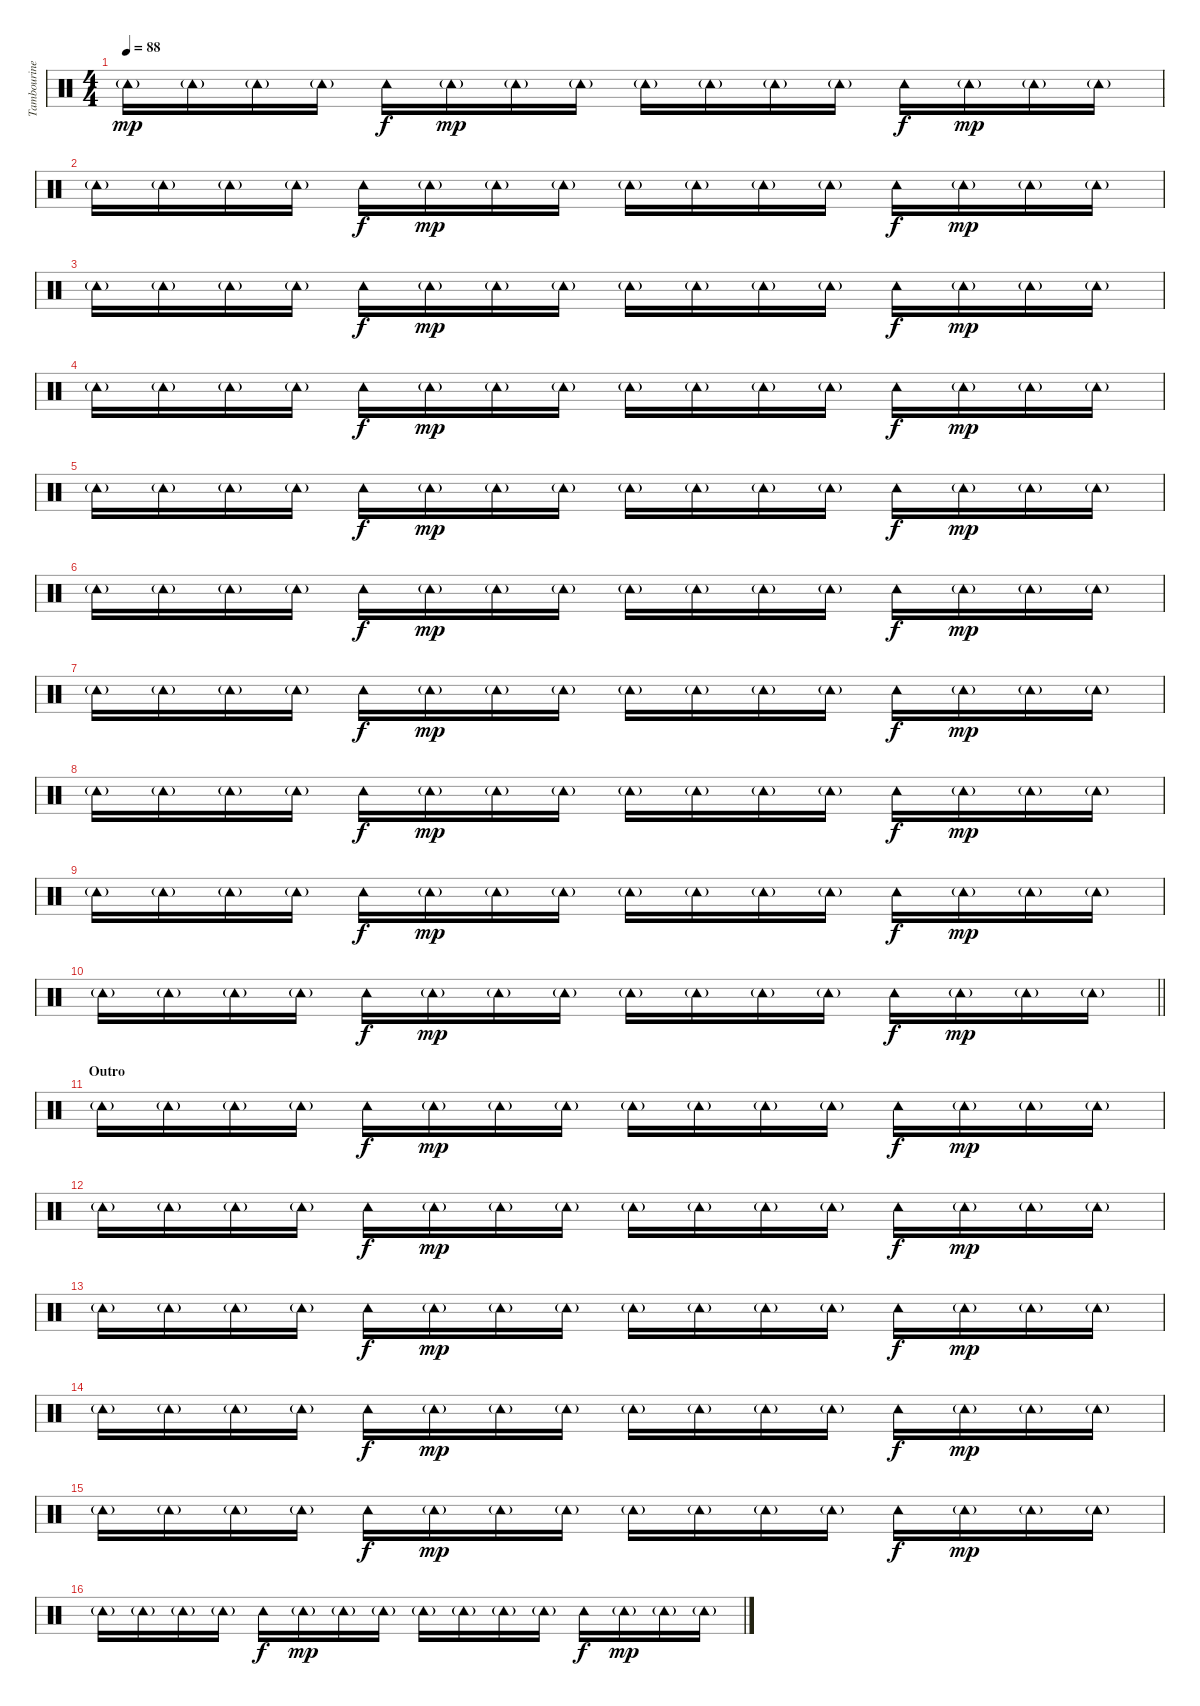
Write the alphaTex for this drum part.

\track ("Tambourine" "Tambourine") {instrument percussion}
\staff {score}
\articulation defaults
\ts (4 4)
\tempo 88
\clef neutral
\ks c "Tambourine (hit)"{g}.16{dy mp} "Tambourine (hit)"{g}.16 "Tambourine (hit)"{g}.16 "Tambourine (hit)"{g}.16 "Tambourine (hit)".16{dy f} "Tambourine (hit)"{g}.16{dy mp} "Tambourine (hit)"{g}.16 "Tambourine (hit)"{g}.16 "Tambourine (hit)"{g}.16 "Tambourine (hit)"{g}.16 "Tambourine (hit)"{g}.16 "Tambourine (hit)"{g}.16 "Tambourine (hit)".16{dy f} "Tambourine (hit)"{g}.16{dy mp} "Tambourine (hit)"{g}.16 "Tambourine (hit)"{g}.16
|
"Tambourine (hit)"{g}.16 "Tambourine (hit)"{g}.16 "Tambourine (hit)"{g}.16 "Tambourine (hit)"{g}.16 "Tambourine (hit)".16{dy f} "Tambourine (hit)"{g}.16{dy mp} "Tambourine (hit)"{g}.16 "Tambourine (hit)"{g}.16 "Tambourine (hit)"{g}.16 "Tambourine (hit)"{g}.16 "Tambourine (hit)"{g}.16 "Tambourine (hit)"{g}.16 "Tambourine (hit)".16{dy f} "Tambourine (hit)"{g}.16{dy mp} "Tambourine (hit)"{g}.16 "Tambourine (hit)"{g}.16 |
"Tambourine (hit)"{g}.16 "Tambourine (hit)"{g}.16 "Tambourine (hit)"{g}.16 "Tambourine (hit)"{g}.16 "Tambourine (hit)".16{dy f} "Tambourine (hit)"{g}.16{dy mp} "Tambourine (hit)"{g}.16 "Tambourine (hit)"{g}.16 "Tambourine (hit)"{g}.16 "Tambourine (hit)"{g}.16 "Tambourine (hit)"{g}.16 "Tambourine (hit)"{g}.16 "Tambourine (hit)".16{dy f} "Tambourine (hit)"{g}.16{dy mp} "Tambourine (hit)"{g}.16 "Tambourine (hit)"{g}.16 |
"Tambourine (hit)"{g}.16 "Tambourine (hit)"{g}.16 "Tambourine (hit)"{g}.16 "Tambourine (hit)"{g}.16 "Tambourine (hit)".16{dy f} "Tambourine (hit)"{g}.16{dy mp} "Tambourine (hit)"{g}.16 "Tambourine (hit)"{g}.16 "Tambourine (hit)"{g}.16 "Tambourine (hit)"{g}.16 "Tambourine (hit)"{g}.16 "Tambourine (hit)"{g}.16 "Tambourine (hit)".16{dy f} "Tambourine (hit)"{g}.16{dy mp} "Tambourine (hit)"{g}.16 "Tambourine (hit)"{g}.16 |
"Tambourine (hit)"{g}.16 "Tambourine (hit)"{g}.16 "Tambourine (hit)"{g}.16 "Tambourine (hit)"{g}.16 "Tambourine (hit)".16{dy f} "Tambourine (hit)"{g}.16{dy mp} "Tambourine (hit)"{g}.16 "Tambourine (hit)"{g}.16 "Tambourine (hit)"{g}.16 "Tambourine (hit)"{g}.16 "Tambourine (hit)"{g}.16 "Tambourine (hit)"{g}.16 "Tambourine (hit)".16{dy f} "Tambourine (hit)"{g}.16{dy mp} "Tambourine (hit)"{g}.16 "Tambourine (hit)"{g}.16 |
"Tambourine (hit)"{g}.16 "Tambourine (hit)"{g}.16 "Tambourine (hit)"{g}.16 "Tambourine (hit)"{g}.16 "Tambourine (hit)".16{dy f} "Tambourine (hit)"{g}.16{dy mp} "Tambourine (hit)"{g}.16 "Tambourine (hit)"{g}.16 "Tambourine (hit)"{g}.16 "Tambourine (hit)"{g}.16 "Tambourine (hit)"{g}.16 "Tambourine (hit)"{g}.16 "Tambourine (hit)".16{dy f} "Tambourine (hit)"{g}.16{dy mp} "Tambourine (hit)"{g}.16 "Tambourine (hit)"{g}.16 |
"Tambourine (hit)"{g}.16 "Tambourine (hit)"{g}.16 "Tambourine (hit)"{g}.16 "Tambourine (hit)"{g}.16 "Tambourine (hit)".16{dy f} "Tambourine (hit)"{g}.16{dy mp} "Tambourine (hit)"{g}.16 "Tambourine (hit)"{g}.16 "Tambourine (hit)"{g}.16 "Tambourine (hit)"{g}.16 "Tambourine (hit)"{g}.16 "Tambourine (hit)"{g}.16 "Tambourine (hit)".16{dy f} "Tambourine (hit)"{g}.16{dy mp} "Tambourine (hit)"{g}.16 "Tambourine (hit)"{g}.16 |
"Tambourine (hit)"{g}.16 "Tambourine (hit)"{g}.16 "Tambourine (hit)"{g}.16 "Tambourine (hit)"{g}.16 "Tambourine (hit)".16{dy f} "Tambourine (hit)"{g}.16{dy mp} "Tambourine (hit)"{g}.16 "Tambourine (hit)"{g}.16 "Tambourine (hit)"{g}.16 "Tambourine (hit)"{g}.16 "Tambourine (hit)"{g}.16 "Tambourine (hit)"{g}.16 "Tambourine (hit)".16{dy f} "Tambourine (hit)"{g}.16{dy mp} "Tambourine (hit)"{g}.16 "Tambourine (hit)"{g}.16 |
"Tambourine (hit)"{g}.16 "Tambourine (hit)"{g}.16 "Tambourine (hit)"{g}.16 "Tambourine (hit)"{g}.16 "Tambourine (hit)".16{dy f} "Tambourine (hit)"{g}.16{dy mp} "Tambourine (hit)"{g}.16 "Tambourine (hit)"{g}.16 "Tambourine (hit)"{g}.16 "Tambourine (hit)"{g}.16 "Tambourine (hit)"{g}.16 "Tambourine (hit)"{g}.16 "Tambourine (hit)".16{dy f} "Tambourine (hit)"{g}.16{dy mp} "Tambourine (hit)"{g}.16 "Tambourine (hit)"{g}.16 |
\barLineRight lightlight "Tambourine (hit)"{g}.16 "Tambourine (hit)"{g}.16 "Tambourine (hit)"{g}.16 "Tambourine (hit)"{g}.16 "Tambourine (hit)".16{dy f} "Tambourine (hit)"{g}.16{dy mp} "Tambourine (hit)"{g}.16 "Tambourine (hit)"{g}.16 "Tambourine (hit)"{g}.16 "Tambourine (hit)"{g}.16 "Tambourine (hit)"{g}.16 "Tambourine (hit)"{g}.16 "Tambourine (hit)".16{dy f} "Tambourine (hit)"{g}.16{dy mp} "Tambourine (hit)"{g}.16 "Tambourine (hit)"{g}.16
|
\section ("" "Outro")
"Tambourine (hit)"{g}.16 "Tambourine (hit)"{g}.16 "Tambourine (hit)"{g}.16 "Tambourine (hit)"{g}.16 "Tambourine (hit)".16{dy f} "Tambourine (hit)"{g}.16{dy mp} "Tambourine (hit)"{g}.16 "Tambourine (hit)"{g}.16 "Tambourine (hit)"{g}.16 "Tambourine (hit)"{g}.16 "Tambourine (hit)"{g}.16 "Tambourine (hit)"{g}.16 "Tambourine (hit)".16{dy f} "Tambourine (hit)"{g}.16{dy mp} "Tambourine (hit)"{g}.16 "Tambourine (hit)"{g}.16 |
"Tambourine (hit)"{g}.16 "Tambourine (hit)"{g}.16 "Tambourine (hit)"{g}.16 "Tambourine (hit)"{g}.16 "Tambourine (hit)".16{dy f} "Tambourine (hit)"{g}.16{dy mp} "Tambourine (hit)"{g}.16 "Tambourine (hit)"{g}.16 "Tambourine (hit)"{g}.16 "Tambourine (hit)"{g}.16 "Tambourine (hit)"{g}.16 "Tambourine (hit)"{g}.16 "Tambourine (hit)".16{dy f} "Tambourine (hit)"{g}.16{dy mp} "Tambourine (hit)"{g}.16 "Tambourine (hit)"{g}.16 |
"Tambourine (hit)"{g}.16 "Tambourine (hit)"{g}.16 "Tambourine (hit)"{g}.16 "Tambourine (hit)"{g}.16 "Tambourine (hit)".16{dy f} "Tambourine (hit)"{g}.16{dy mp} "Tambourine (hit)"{g}.16 "Tambourine (hit)"{g}.16 "Tambourine (hit)"{g}.16 "Tambourine (hit)"{g}.16 "Tambourine (hit)"{g}.16 "Tambourine (hit)"{g}.16 "Tambourine (hit)".16{dy f} "Tambourine (hit)"{g}.16{dy mp} "Tambourine (hit)"{g}.16 "Tambourine (hit)"{g}.16 |
"Tambourine (hit)"{g}.16 "Tambourine (hit)"{g}.16 "Tambourine (hit)"{g}.16 "Tambourine (hit)"{g}.16 "Tambourine (hit)".16{dy f} "Tambourine (hit)"{g}.16{dy mp} "Tambourine (hit)"{g}.16 "Tambourine (hit)"{g}.16 "Tambourine (hit)"{g}.16 "Tambourine (hit)"{g}.16 "Tambourine (hit)"{g}.16 "Tambourine (hit)"{g}.16 "Tambourine (hit)".16{dy f} "Tambourine (hit)"{g}.16{dy mp} "Tambourine (hit)"{g}.16 "Tambourine (hit)"{g}.16 |
"Tambourine (hit)"{g}.16 "Tambourine (hit)"{g}.16 "Tambourine (hit)"{g}.16 "Tambourine (hit)"{g}.16 "Tambourine (hit)".16{dy f} "Tambourine (hit)"{g}.16{dy mp} "Tambourine (hit)"{g}.16 "Tambourine (hit)"{g}.16 "Tambourine (hit)"{g}.16 "Tambourine (hit)"{g}.16 "Tambourine (hit)"{g}.16 "Tambourine (hit)"{g}.16 "Tambourine (hit)".16{dy f} "Tambourine (hit)"{g}.16{dy mp} "Tambourine (hit)"{g}.16 "Tambourine (hit)"{g}.16 |
"Tambourine (hit)"{g}.16 "Tambourine (hit)"{g}.16 "Tambourine (hit)"{g}.16 "Tambourine (hit)"{g}.16 "Tambourine (hit)".16{dy f} "Tambourine (hit)"{g}.16{dy mp} "Tambourine (hit)"{g}.16 "Tambourine (hit)"{g}.16 "Tambourine (hit)"{g}.16 "Tambourine (hit)"{g}.16 "Tambourine (hit)"{g}.16 "Tambourine (hit)"{g}.16 "Tambourine (hit)".16{dy f} "Tambourine (hit)"{g}.16{dy mp} "Tambourine (hit)"{g}.16 "Tambourine (hit)"{g}.16
